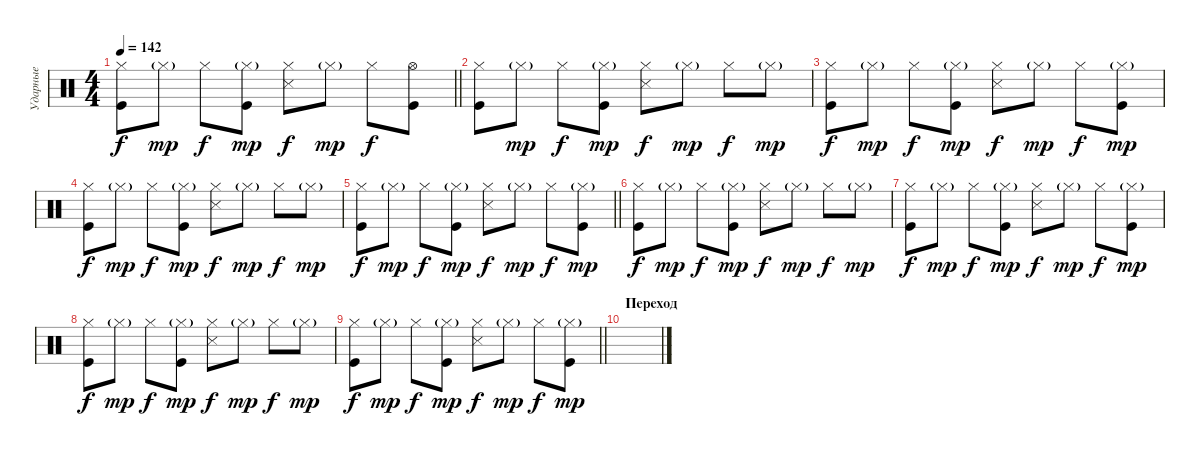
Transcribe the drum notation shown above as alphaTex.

\track ("Ударные" "Ударные") {instrument percussion}
\staff {score}
\articulation defaults
\ts (4 4)
\tempo 142
\clef neutral
\barLineRight lightlight
\ks c
("Hi-Hat (closed)" "Kick (hit)").8{dy f} "Hi-Hat (closed)"{g}.8{dy mp} "Hi-Hat (closed)".8{dy f} ("Hi-Hat (closed)"{g} "Kick (hit)").8{dy mp} ("Hi-Hat (closed)" "Snare (side stick) 3").8{dy f} "Hi-Hat (closed)"{g}.8{dy mp} "Hi-Hat (closed)".8{dy f} ("Hi-Hat (open)" "Kick (hit)").8 |
("Hi-Hat (closed)" "Kick (hit)").8 "Hi-Hat (closed)"{g}.8{dy mp} "Hi-Hat (closed)".8{dy f} ("Hi-Hat (closed)"{g} "Kick (hit)").8{dy mp} ("Hi-Hat (closed)" "Snare (side stick) 3").8{dy f} "Hi-Hat (closed)"{g}.8{dy mp} "Hi-Hat (closed)".8{dy f} "Hi-Hat (closed)"{g}.8{dy mp} |
("Hi-Hat (closed)" "Kick (hit)").8{dy f} "Hi-Hat (closed)"{g}.8{dy mp} "Hi-Hat (closed)".8{dy f} ("Hi-Hat (closed)"{g} "Kick (hit)").8{dy mp} ("Hi-Hat (closed)" "Snare (side stick) 3").8{dy f} "Hi-Hat (closed)"{g}.8{dy mp} "Hi-Hat (closed)".8{dy f} ("Hi-Hat (closed)"{g} "Kick (hit)").8{dy mp} |
("Hi-Hat (closed)" "Kick (hit)").8{dy f} "Hi-Hat (closed)"{g}.8{dy mp} "Hi-Hat (closed)".8{dy f} ("Hi-Hat (closed)"{g} "Kick (hit)").8{dy mp} ("Hi-Hat (closed)" "Snare (side stick) 3").8{dy f} "Hi-Hat (closed)"{g}.8{dy mp} "Hi-Hat (closed)".8{dy f} "Hi-Hat (closed)"{g}.8{dy mp} |
\barLineRight lightlight
("Hi-Hat (closed)" "Kick (hit)").8{dy f} "Hi-Hat (closed)"{g}.8{dy mp} "Hi-Hat (closed)".8{dy f} ("Hi-Hat (closed)"{g} "Kick (hit)").8{dy mp} ("Hi-Hat (closed)" "Snare (side stick) 3").8{dy f} "Hi-Hat (closed)"{g}.8{dy mp} "Hi-Hat (closed)".8{dy f} ("Hi-Hat (closed)"{g} "Kick (hit)").8{dy mp} |
("Hi-Hat (closed)" "Kick (hit)").8{dy f} "Hi-Hat (closed)"{g}.8{dy mp} "Hi-Hat (closed)".8{dy f} ("Hi-Hat (closed)"{g} "Kick (hit)").8{dy mp} ("Hi-Hat (closed)" "Snare (side stick) 3").8{dy f} "Hi-Hat (closed)"{g}.8{dy mp} "Hi-Hat (closed)".8{dy f} "Hi-Hat (closed)"{g}.8{dy mp} |
("Hi-Hat (closed)" "Kick (hit)").8{dy f} "Hi-Hat (closed)"{g}.8{dy mp} "Hi-Hat (closed)".8{dy f} ("Hi-Hat (closed)"{g} "Kick (hit)").8{dy mp} ("Hi-Hat (closed)" "Snare (side stick) 3").8{dy f} "Hi-Hat (closed)"{g}.8{dy mp} "Hi-Hat (closed)".8{dy f} ("Hi-Hat (closed)"{g} "Kick (hit)").8{dy mp} |
("Hi-Hat (closed)" "Kick (hit)").8{dy f} "Hi-Hat (closed)"{g}.8{dy mp} "Hi-Hat (closed)".8{dy f} ("Hi-Hat (closed)"{g} "Kick (hit)").8{dy mp} ("Hi-Hat (closed)" "Snare (side stick) 3").8{dy f} "Hi-Hat (closed)"{g}.8{dy mp} "Hi-Hat (closed)".8{dy f} "Hi-Hat (closed)"{g}.8{dy mp} |
\barLineRight lightlight
("Hi-Hat (closed)" "Kick (hit)").8{dy f} "Hi-Hat (closed)"{g}.8{dy mp} "Hi-Hat (closed)".8{dy f} ("Hi-Hat (closed)"{g} "Kick (hit)").8{dy mp} ("Hi-Hat (closed)" "Snare (side stick) 3").8{dy f} "Hi-Hat (closed)"{g}.8{dy mp} "Hi-Hat (closed)".8{dy f} ("Hi-Hat (closed)"{g} "Kick (hit)").8{dy mp} |
\section ("" "Переход")
